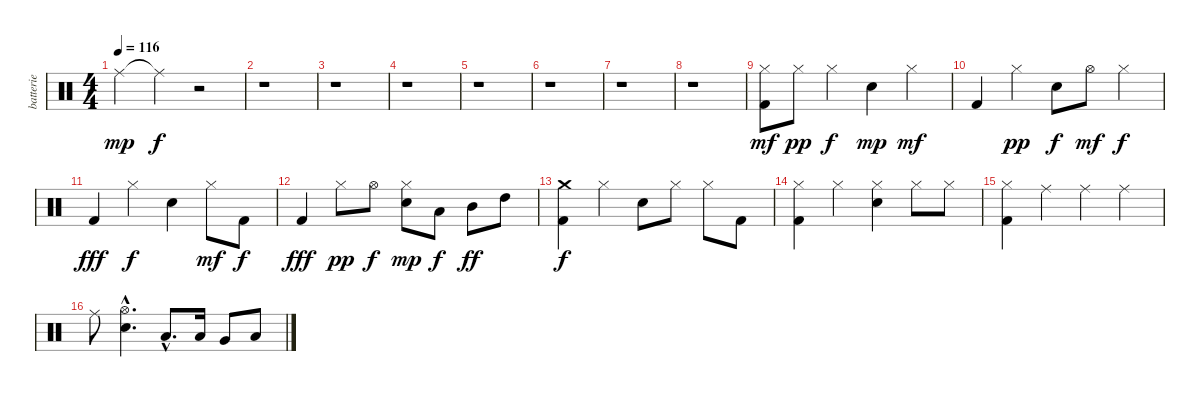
\track ("batterie" "batterie") {instrument percussion}
\staff {score}
\articulation defaults
\ts (4 4)
\tempo 116
\clef neutral
\ks c "Ride (middle)".4{dy mp} "Ride (middle)"{t}.4{dy f}
r.2 |
r.1 |
r.1 |
r.1 |
r.1 |
r.1 |
r.1 |
r.1 |
("Kick (hit) 2" "Hi-Hat (closed)").8{dy mf} "Hi-Hat (closed)".8{dy pp} "Hi-Hat (closed)".4{dy f} "Electric Snare (hit)".4{dy mp} "Hi-Hat (closed)".4{dy mf} |
"Kick (hit) 2".4 "Hi-Hat (closed)".4{dy pp} "Electric Snare (hit)".8{dy f} "Hi-Hat (open)".8{dy mf} "Hi-Hat (closed)".4{dy f} |
"Kick (hit) 2".4{dy fff} "Hi-Hat (closed)".4{dy f} "Electric Snare (hit)".4 "Hi-Hat (closed)".8{dy mf} "Kick (hit) 2".8{dy f} |
"Kick (hit) 2".4{dy fff} "Hi-Hat (closed)".8{dy pp} "Hi-Hat (open)".8{dy f} ("Electric Snare (hit)" "Hi-Hat (closed)").8{dy mp} "Low Tom (hit)".8{dy f} "Mid Tom (hit)".8{dy ff} "High Tom (hit)".8 |
("Kick (hit) 2" "Crash medium (hit)").4{dy f} "Hi-Hat (closed)".4 "Electric Snare (hit)".8 "Hi-Hat (closed)".8 "Hi-Hat (closed)".8 "Kick (hit) 2".8 |
("Kick (hit) 2" "Hi-Hat (closed)").4 "Hi-Hat (closed)".4 ("Electric Snare (hit)" "Hi-Hat (closed)").4 "Hi-Hat (closed)".8 "Hi-Hat (closed)".8 |
("Kick (hit) 2" "Hi-Hat (closed)").4 "Ride (middle)".4 "Ride (middle)".4 "Ride (middle)".4 |
"Ride (middle)".8 ("Electric Snare (hit)"{hac} "Hi-Hat (open)"{hac}).4{d} "Low Tom (hit)"{hac}.8{d} "Low Tom (hit)".16 "Very Low Tom (hit)".8 "Low Floor Tom (hit)".8
